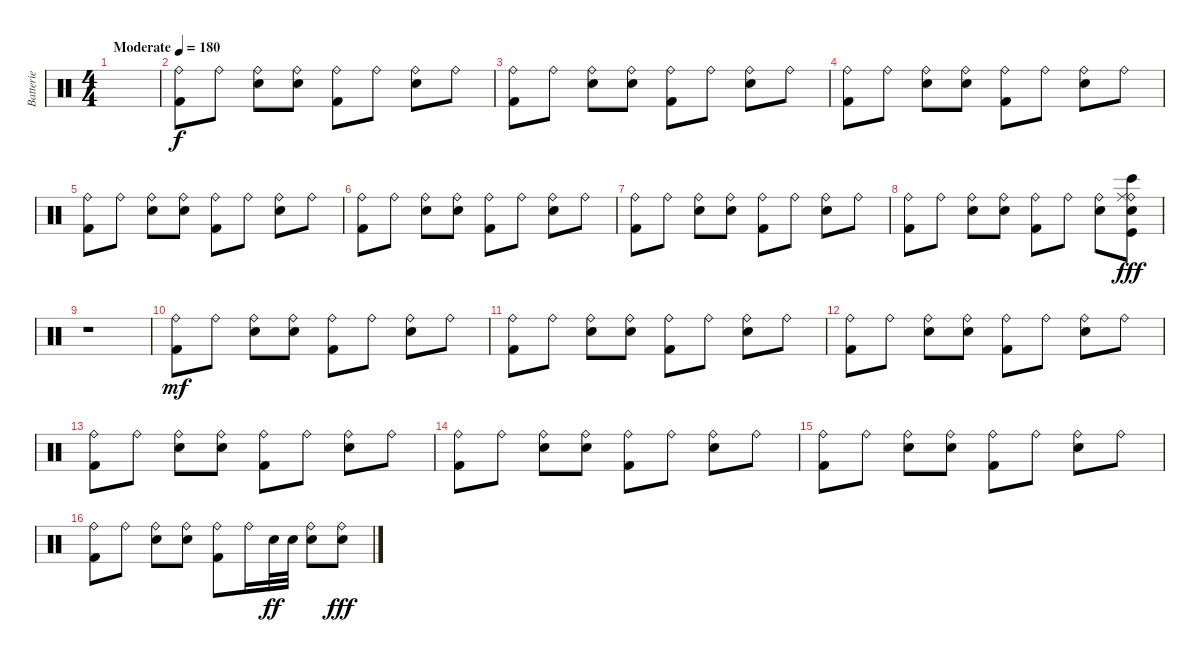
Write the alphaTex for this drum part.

\track ("Batterie" "Batterie") {instrument percussion}
\staff {score}
\articulation defaults
\ts (4 4)
\tempo (180 "Moderate")
\clef neutral
\ks c
|
("Kick (hit) 2" "Ride (bell)").8 "Ride (bell)".8 ("Electric Snare (hit)" "Ride (bell)").8 ("Electric Snare (hit)" "Ride (bell)").8 ("Kick (hit) 2" "Ride (bell)").8 "Ride (bell)".8 ("Electric Snare (hit)" "Ride (bell)").8 "Ride (bell)".8 |
("Kick (hit) 2" "Ride (bell)").8 "Ride (bell)".8 ("Electric Snare (hit)" "Ride (bell)").8 ("Electric Snare (hit)" "Ride (bell)").8 ("Kick (hit) 2" "Ride (bell)").8 "Ride (bell)".8 ("Electric Snare (hit)" "Ride (bell)").8 "Ride (bell)".8 |
("Kick (hit) 2" "Ride (bell)").8 "Ride (bell)".8 ("Electric Snare (hit)" "Ride (bell)").8 ("Electric Snare (hit)" "Ride (bell)").8 ("Kick (hit) 2" "Ride (bell)").8 "Ride (bell)".8 ("Electric Snare (hit)" "Ride (bell)").8 "Ride (bell)".8 |
("Kick (hit) 2" "Ride (bell)").8 "Ride (bell)".8 ("Electric Snare (hit)" "Ride (bell)").8 ("Electric Snare (hit)" "Ride (bell)").8 ("Kick (hit) 2" "Ride (bell)").8 "Ride (bell)".8 ("Electric Snare (hit)" "Ride (bell)").8 "Ride (bell)".8 |
("Kick (hit) 2" "Ride (bell)").8 "Ride (bell)".8 ("Electric Snare (hit)" "Ride (bell)").8 ("Electric Snare (hit)" "Ride (bell)").8 ("Kick (hit) 2" "Ride (bell)").8 "Ride (bell)".8 ("Electric Snare (hit)" "Ride (bell)").8 "Ride (bell)".8 |
("Kick (hit) 2" "Ride (bell)").8 "Ride (bell)".8 ("Electric Snare (hit)" "Ride (bell)").8 ("Electric Snare (hit)" "Ride (bell)").8 ("Kick (hit) 2" "Ride (bell)").8 "Ride (bell)".8 ("Electric Snare (hit)" "Ride (bell)").8 "Ride (bell)".8 |
("Kick (hit) 2" "Ride (bell)").8 "Ride (bell)".8 ("Electric Snare (hit)" "Ride (bell)").8 ("Electric Snare (hit)" "Ride (bell)").8 ("Kick (hit) 2" "Ride (bell)").8 "Ride (bell)".8 ("Electric Snare (hit)" "Ride (bell)").8 ("Bongo High (hit)" "Electric Snare (hit)" "Kick (hit)" "Ride (bell)" "Ride (middle)").8{dy fff} |
r.1 |
("Kick (hit) 2" "Ride (bell)").8{dy mf} "Ride (bell)".8 ("Electric Snare (hit)" "Ride (bell)").8 ("Electric Snare (hit)" "Ride (bell)").8 ("Kick (hit) 2" "Ride (bell)").8 "Ride (bell)".8 ("Electric Snare (hit)" "Ride (bell)").8 "Ride (bell)".8 |
("Kick (hit) 2" "Ride (bell)").8 "Ride (bell)".8 ("Electric Snare (hit)" "Ride (bell)").8 ("Electric Snare (hit)" "Ride (bell)").8 ("Kick (hit) 2" "Ride (bell)").8 "Ride (bell)".8 ("Electric Snare (hit)" "Ride (bell)").8 "Ride (bell)".8 |
("Kick (hit) 2" "Ride (bell)").8 "Ride (bell)".8 ("Electric Snare (hit)" "Ride (bell)").8 ("Electric Snare (hit)" "Ride (bell)").8 ("Kick (hit) 2" "Ride (bell)").8 "Ride (bell)".8 ("Electric Snare (hit)" "Ride (bell)").8 "Ride (bell)".8 |
("Kick (hit) 2" "Ride (bell)").8 "Ride (bell)".8 ("Electric Snare (hit)" "Ride (bell)").8 ("Electric Snare (hit)" "Ride (bell)").8 ("Kick (hit) 2" "Ride (bell)").8 "Ride (bell)".8 ("Electric Snare (hit)" "Ride (bell)").8 "Ride (bell)".8 |
("Kick (hit) 2" "Ride (bell)").8 "Ride (bell)".8 ("Electric Snare (hit)" "Ride (bell)").8 ("Electric Snare (hit)" "Ride (bell)").8 ("Kick (hit) 2" "Ride (bell)").8 "Ride (bell)".8 ("Electric Snare (hit)" "Ride (bell)").8 "Ride (bell)".8 |
("Kick (hit) 2" "Ride (bell)").8 "Ride (bell)".8 ("Electric Snare (hit)" "Ride (bell)").8 ("Electric Snare (hit)" "Ride (bell)").8 ("Kick (hit) 2" "Ride (bell)").8 "Ride (bell)".8 ("Electric Snare (hit)" "Ride (bell)").8 "Ride (bell)".8 |
("Kick (hit) 2" "Ride (bell)").8 "Ride (bell)".8 ("Electric Snare (hit)" "Ride (bell)").8 ("Electric Snare (hit)" "Ride (bell)").8 ("Kick (hit) 2" "Ride (bell)").8 "Ride (bell)".16 "Electric Snare (hit)".32{dy ff} "Electric Snare (hit)".32 ("Electric Snare (hit)" "Ride (bell)").8 ("Ride (bell)" "Electric Snare (hit)").8{dy fff}
